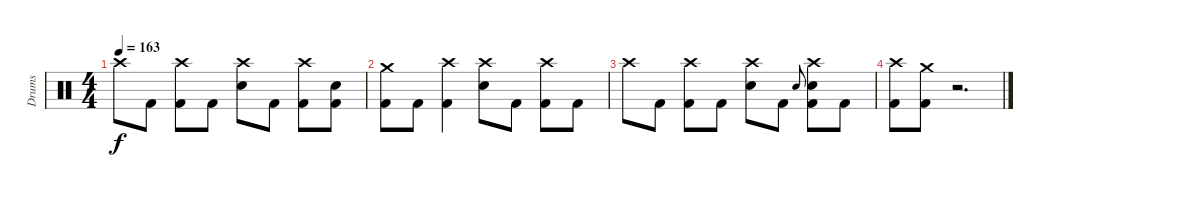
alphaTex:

\track ("Drums" "Drums") {instrument percussion}
\staff {score}
\articulation defaults
\ts (4 4)
\tempo 163
\clef neutral
\ks c "Crash high (hit)".8{dy f} "Kick (hit) 2".8
("Crash high (hit)" "Kick (hit) 2").8 "Kick (hit) 2".8 ("Crash high (hit)" "Snare (hit) 2").8 "Kick (hit) 2".8 ("Crash high (hit)" "Kick (hit) 2").8 ("Snare (hit) 2" "Kick (hit) 2").8 |
("Crash medium (hit)" "Kick (hit) 2").8 "Kick (hit) 2".8 ("Crash high (hit)" "Kick (hit) 2").4 ("Crash high (hit)" "Snare (hit) 2").8 "Kick (hit) 2".8 ("Crash high (hit)" "Kick (hit) 2").8 "Kick (hit) 2".8 |
"Crash high (hit)".8 "Kick (hit) 2".8 ("Crash high (hit)" "Kick (hit) 2").8 "Kick (hit) 2".8 ("Crash high (hit)" "Snare (hit) 2").8 "Kick (hit) 2".8 "Snare (hit) 2".8{gr onbeat} ("Crash high (hit)" "Snare (hit) 2" "Kick (hit) 2").8 "Kick (hit) 2".8 |
("Crash high (hit)" "Kick (hit) 2").8 ("Crash medium (hit)" "Kick (hit) 2").8 r.2{d}
